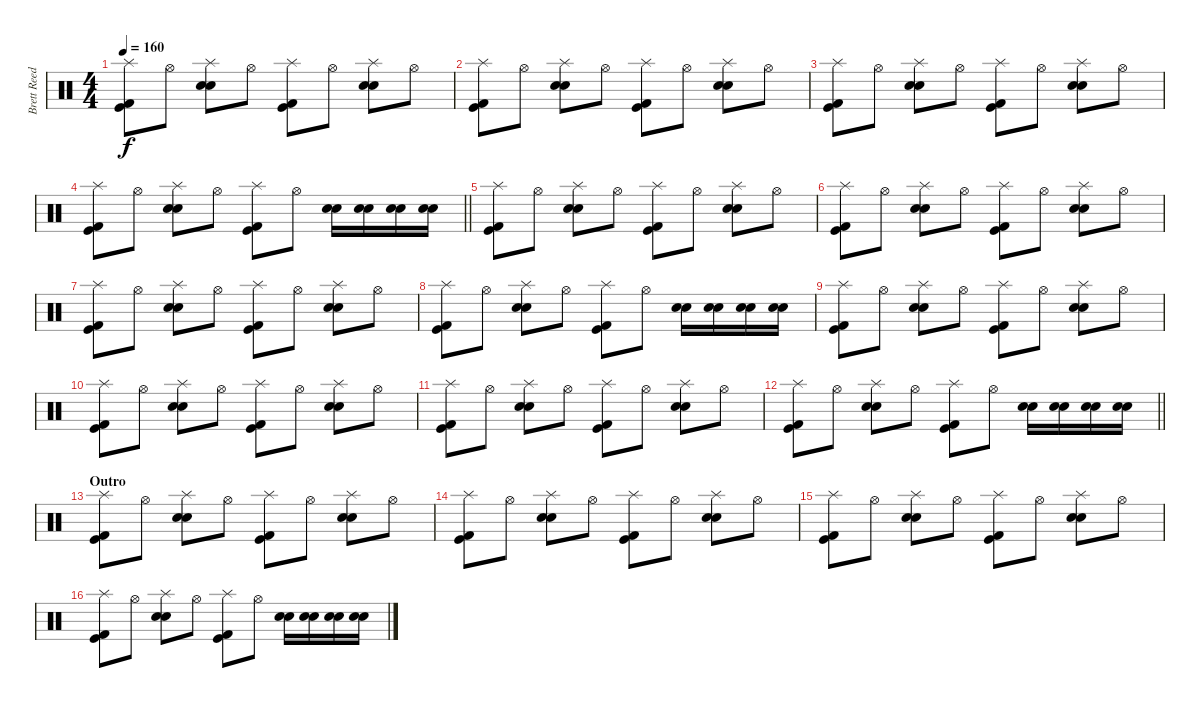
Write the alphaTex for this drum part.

\track ("Brett Reed" "Brett Reed") {instrument percussion}
\staff {score}
\articulation defaults
\ts (4 4)
\tempo 160
\clef neutral
\ks c
("Splash (hit)" "Kick (hit) 2" "Kick (hit)").8{dy f} "Hi-Hat (open)".8 ("Splash (hit)" "Electric Snare (hit)" "Snare (hit) 2").8 "Hi-Hat (open)".8 ("Splash (hit)" "Kick (hit) 2" "Kick (hit)").8 "Hi-Hat (open)".8 ("Splash (hit)" "Electric Snare (hit)" "Snare (hit) 2").8 "Hi-Hat (open)".8 |
("Splash (hit)" "Kick (hit) 2" "Kick (hit)").8 "Hi-Hat (open)".8 ("Splash (hit)" "Electric Snare (hit)" "Snare (hit) 2").8 "Hi-Hat (open)".8 ("Splash (hit)" "Kick (hit) 2" "Kick (hit)").8 "Hi-Hat (open)".8 ("Splash (hit)" "Electric Snare (hit)" "Snare (hit) 2").8 "Hi-Hat (open)".8 |
("Splash (hit)" "Kick (hit) 2" "Kick (hit)").8 "Hi-Hat (open)".8 ("Splash (hit)" "Electric Snare (hit)" "Snare (hit) 2").8 "Hi-Hat (open)".8 ("Splash (hit)" "Kick (hit) 2" "Kick (hit)").8 "Hi-Hat (open)".8 ("Splash (hit)" "Electric Snare (hit)" "Snare (hit) 2").8 "Hi-Hat (open)".8 |
\barLineRight lightlight
("Splash (hit)" "Kick (hit) 2" "Kick (hit)").8 "Hi-Hat (open)".8 ("Splash (hit)" "Electric Snare (hit)" "Snare (hit) 2").8 "Hi-Hat (open)".8 ("Splash (hit)" "Kick (hit) 2" "Kick (hit)").8 "Hi-Hat (open)".8 ("Electric Snare (hit)" "Snare (hit) 2").16 ("Electric Snare (hit)" "Snare (hit) 2").16 ("Electric Snare (hit)" "Snare (hit) 2").16 ("Electric Snare (hit)" "Snare (hit) 2").16 |
("Splash (hit)" "Kick (hit) 2" "Kick (hit)").8 "Hi-Hat (open)".8 ("Splash (hit)" "Electric Snare (hit)" "Snare (hit) 2").8 "Hi-Hat (open)".8 ("Splash (hit)" "Kick (hit) 2" "Kick (hit)").8 "Hi-Hat (open)".8 ("Splash (hit)" "Electric Snare (hit)" "Snare (hit) 2").8 "Hi-Hat (open)".8 |
("Splash (hit)" "Kick (hit) 2" "Kick (hit)").8 "Hi-Hat (open)".8 ("Splash (hit)" "Electric Snare (hit)" "Snare (hit) 2").8 "Hi-Hat (open)".8 ("Splash (hit)" "Kick (hit) 2" "Kick (hit)").8 "Hi-Hat (open)".8 ("Splash (hit)" "Electric Snare (hit)" "Snare (hit) 2").8 "Hi-Hat (open)".8 |
("Splash (hit)" "Kick (hit) 2" "Kick (hit)").8 "Hi-Hat (open)".8 ("Splash (hit)" "Electric Snare (hit)" "Snare (hit) 2").8 "Hi-Hat (open)".8 ("Splash (hit)" "Kick (hit) 2" "Kick (hit)").8 "Hi-Hat (open)".8 ("Splash (hit)" "Electric Snare (hit)" "Snare (hit) 2").8 "Hi-Hat (open)".8 |
("Splash (hit)" "Kick (hit) 2" "Kick (hit)").8 "Hi-Hat (open)".8 ("Splash (hit)" "Electric Snare (hit)" "Snare (hit) 2").8 "Hi-Hat (open)".8 ("Splash (hit)" "Kick (hit) 2" "Kick (hit)").8 "Hi-Hat (open)".8 ("Electric Snare (hit)" "Snare (hit) 2").16 ("Electric Snare (hit)" "Snare (hit) 2").16 ("Electric Snare (hit)" "Snare (hit) 2").16 ("Electric Snare (hit)" "Snare (hit) 2").16 |
("Splash (hit)" "Kick (hit) 2" "Kick (hit)").8 "Hi-Hat (open)".8 ("Splash (hit)" "Electric Snare (hit)" "Snare (hit) 2").8 "Hi-Hat (open)".8 ("Splash (hit)" "Kick (hit) 2" "Kick (hit)").8 "Hi-Hat (open)".8 ("Splash (hit)" "Electric Snare (hit)" "Snare (hit) 2").8 "Hi-Hat (open)".8 |
("Splash (hit)" "Kick (hit) 2" "Kick (hit)").8 "Hi-Hat (open)".8 ("Splash (hit)" "Electric Snare (hit)" "Snare (hit) 2").8 "Hi-Hat (open)".8 ("Splash (hit)" "Kick (hit) 2" "Kick (hit)").8 "Hi-Hat (open)".8 ("Splash (hit)" "Electric Snare (hit)" "Snare (hit) 2").8 "Hi-Hat (open)".8 |
("Splash (hit)" "Kick (hit) 2" "Kick (hit)").8 "Hi-Hat (open)".8 ("Splash (hit)" "Electric Snare (hit)" "Snare (hit) 2").8 "Hi-Hat (open)".8 ("Splash (hit)" "Kick (hit) 2" "Kick (hit)").8 "Hi-Hat (open)".8 ("Splash (hit)" "Electric Snare (hit)" "Snare (hit) 2").8 "Hi-Hat (open)".8 |
\barLineRight lightlight
("Splash (hit)" "Kick (hit) 2" "Kick (hit)").8 "Hi-Hat (open)".8 ("Splash (hit)" "Electric Snare (hit)" "Snare (hit) 2").8 "Hi-Hat (open)".8 ("Splash (hit)" "Kick (hit) 2" "Kick (hit)").8 "Hi-Hat (open)".8 ("Electric Snare (hit)" "Snare (hit) 2").16 ("Electric Snare (hit)" "Snare (hit) 2").16 ("Electric Snare (hit)" "Snare (hit) 2").16 ("Electric Snare (hit)" "Snare (hit) 2").16 |
\section ("" "Outro")
("Splash (hit)" "Kick (hit) 2" "Kick (hit)").8{volume 0} "Hi-Hat (open)".8 ("Splash (hit)" "Electric Snare (hit)" "Snare (hit) 2").8 "Hi-Hat (open)".8 ("Splash (hit)" "Kick (hit) 2" "Kick (hit)").8 "Hi-Hat (open)".8 ("Splash (hit)" "Electric Snare (hit)" "Snare (hit) 2").8 "Hi-Hat (open)".8 |
("Splash (hit)" "Kick (hit) 2" "Kick (hit)").8 "Hi-Hat (open)".8 ("Splash (hit)" "Electric Snare (hit)" "Snare (hit) 2").8 "Hi-Hat (open)".8 ("Splash (hit)" "Kick (hit) 2" "Kick (hit)").8 "Hi-Hat (open)".8 ("Splash (hit)" "Electric Snare (hit)" "Snare (hit) 2").8 "Hi-Hat (open)".8 |
("Splash (hit)" "Kick (hit) 2" "Kick (hit)").8 "Hi-Hat (open)".8 ("Splash (hit)" "Electric Snare (hit)" "Snare (hit) 2").8 "Hi-Hat (open)".8 ("Splash (hit)" "Kick (hit) 2" "Kick (hit)").8 "Hi-Hat (open)".8 ("Splash (hit)" "Electric Snare (hit)" "Snare (hit) 2").8 "Hi-Hat (open)".8 |
("Splash (hit)" "Kick (hit) 2" "Kick (hit)").8 "Hi-Hat (open)".8 ("Splash (hit)" "Electric Snare (hit)" "Snare (hit) 2").8 "Hi-Hat (open)".8 ("Splash (hit)" "Kick (hit) 2" "Kick (hit)").8 "Hi-Hat (open)".8 ("Electric Snare (hit)" "Snare (hit) 2").16 ("Electric Snare (hit)" "Snare (hit) 2").16 ("Electric Snare (hit)" "Snare (hit) 2").16 ("Electric Snare (hit)" "Snare (hit) 2").16
